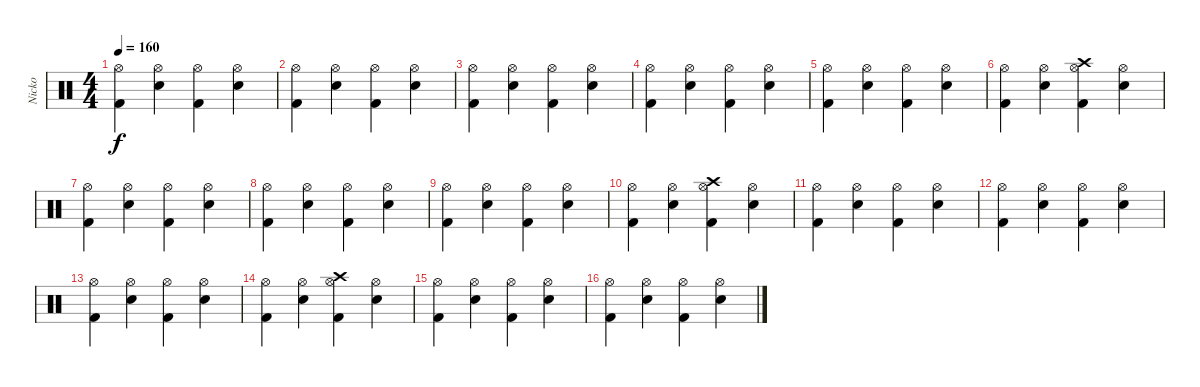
\track ("Nicko" "Nicko") {instrument percussion}
\staff {score}
\articulation defaults
\ts (4 4)
\tempo 160
\clef neutral
\ks c
("Kick (hit) 2" "Hi-Hat (open)").4{dy f} ("Snare (hit) 2" "Hi-Hat (open)").4 ("Kick (hit) 2" "Hi-Hat (open)").4 ("Snare (hit) 2" "Hi-Hat (open)").4 |
("Kick (hit) 2" "Hi-Hat (open)").4 ("Snare (hit) 2" "Hi-Hat (open)").4 ("Kick (hit) 2" "Hi-Hat (open)").4 ("Snare (hit) 2" "Hi-Hat (open)").4 |
("Kick (hit) 2" "Hi-Hat (open)").4 ("Snare (hit) 2" "Hi-Hat (open)").4 ("Kick (hit) 2" "Hi-Hat (open)").4 ("Snare (hit) 2" "Hi-Hat (open)").4 |
("Kick (hit) 2" "Hi-Hat (open)").4 ("Snare (hit) 2" "Hi-Hat (open)").4 ("Kick (hit) 2" "Hi-Hat (open)").4 ("Snare (hit) 2" "Hi-Hat (open)").4 |
("Kick (hit) 2" "Hi-Hat (open)").4 ("Snare (hit) 2" "Hi-Hat (open)").4 ("Kick (hit) 2" "Hi-Hat (open)").4 ("Snare (hit) 2" "Hi-Hat (open)").4 |
("Kick (hit) 2" "Hi-Hat (open)").4 ("Snare (hit) 2" "Hi-Hat (open)").4 ("Kick (hit) 2" "Hi-Hat (open)" "Crash high (hit)").4 ("Snare (hit) 2" "Hi-Hat (open)").4 |
("Kick (hit) 2" "Hi-Hat (open)").4 ("Snare (hit) 2" "Hi-Hat (open)").4 ("Kick (hit) 2" "Hi-Hat (open)").4 ("Snare (hit) 2" "Hi-Hat (open)").4 |
("Kick (hit) 2" "Hi-Hat (open)").4 ("Snare (hit) 2" "Hi-Hat (open)").4 ("Kick (hit) 2" "Hi-Hat (open)").4 ("Snare (hit) 2" "Hi-Hat (open)").4 |
("Kick (hit) 2" "Hi-Hat (open)").4 ("Snare (hit) 2" "Hi-Hat (open)").4 ("Kick (hit) 2" "Hi-Hat (open)").4 ("Snare (hit) 2" "Hi-Hat (open)").4 |
("Kick (hit) 2" "Hi-Hat (open)").4 ("Snare (hit) 2" "Hi-Hat (open)").4 ("Kick (hit) 2" "Hi-Hat (open)" "Crash high (hit)").4 ("Snare (hit) 2" "Hi-Hat (open)").4 |
("Kick (hit) 2" "Hi-Hat (open)").4 ("Snare (hit) 2" "Hi-Hat (open)").4 ("Kick (hit) 2" "Hi-Hat (open)").4 ("Snare (hit) 2" "Hi-Hat (open)").4 |
("Kick (hit) 2" "Hi-Hat (open)").4 ("Snare (hit) 2" "Hi-Hat (open)").4 ("Kick (hit) 2" "Hi-Hat (open)").4 ("Snare (hit) 2" "Hi-Hat (open)").4 |
("Kick (hit) 2" "Hi-Hat (open)").4 ("Snare (hit) 2" "Hi-Hat (open)").4 ("Kick (hit) 2" "Hi-Hat (open)").4 ("Snare (hit) 2" "Hi-Hat (open)").4 |
("Kick (hit) 2" "Hi-Hat (open)").4 ("Snare (hit) 2" "Hi-Hat (open)").4 ("Kick (hit) 2" "Hi-Hat (open)" "Crash high (hit)").4 ("Snare (hit) 2" "Hi-Hat (open)").4 |
("Kick (hit) 2" "Hi-Hat (open)").4 ("Snare (hit) 2" "Hi-Hat (open)").4 ("Kick (hit) 2" "Hi-Hat (open)").4 ("Snare (hit) 2" "Hi-Hat (open)").4 |
("Kick (hit) 2" "Hi-Hat (open)").4 ("Snare (hit) 2" "Hi-Hat (open)").4 ("Kick (hit) 2" "Hi-Hat (open)").4 ("Snare (hit) 2" "Hi-Hat (open)").4
